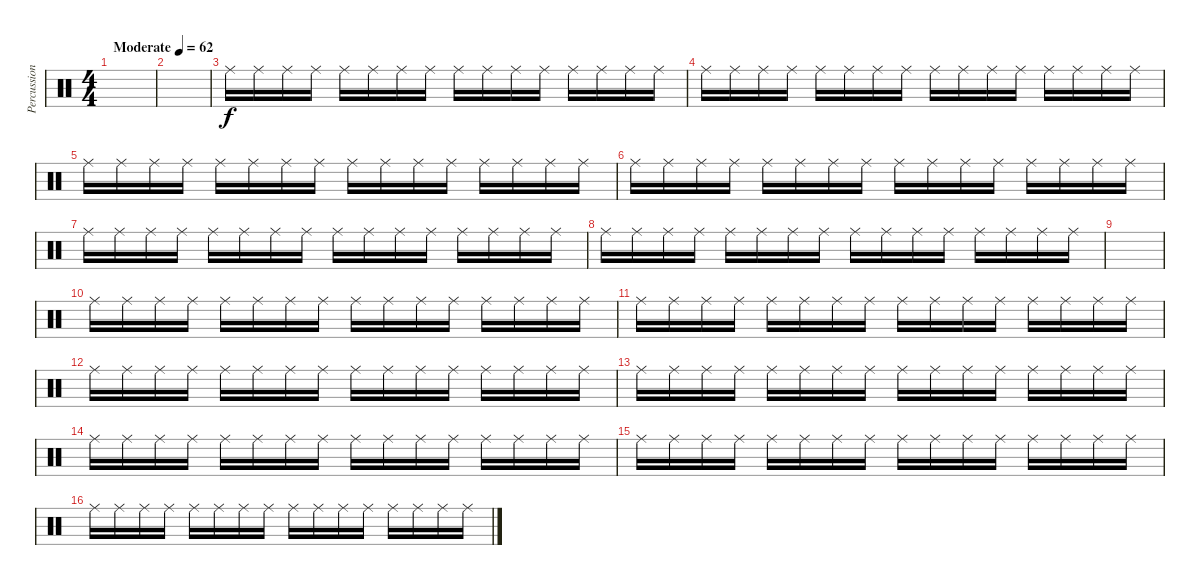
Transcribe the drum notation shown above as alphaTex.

\track ("Percussion" "Percussion") {instrument percussion}
\staff {score}
\articulation defaults
\ts (4 4)
\tempo (62 "Moderate")
\clef neutral
\ks c
|
|
"Ride (middle)".16 "Ride (middle)".16 "Ride (middle)".16 "Ride (middle)".16 "Ride (middle)".16 "Ride (middle)".16 "Ride (middle)".16 "Ride (middle)".16 "Ride (middle)".16 "Ride (middle)".16 "Ride (middle)".16 "Ride (middle)".16 "Ride (middle)".16 "Ride (middle)".16 "Ride (middle)".16 "Ride (middle)".16 |
"Ride (middle)".16 "Ride (middle)".16 "Ride (middle)".16 "Ride (middle)".16 "Ride (middle)".16 "Ride (middle)".16 "Ride (middle)".16 "Ride (middle)".16 "Ride (middle)".16 "Ride (middle)".16 "Ride (middle)".16 "Ride (middle)".16 "Ride (middle)".16 "Ride (middle)".16 "Ride (middle)".16 "Ride (middle)".16 |
"Ride (middle)".16 "Ride (middle)".16 "Ride (middle)".16 "Ride (middle)".16 "Ride (middle)".16 "Ride (middle)".16 "Ride (middle)".16 "Ride (middle)".16 "Ride (middle)".16 "Ride (middle)".16 "Ride (middle)".16 "Ride (middle)".16 "Ride (middle)".16 "Ride (middle)".16 "Ride (middle)".16 "Ride (middle)".16 |
"Ride (middle)".16 "Ride (middle)".16 "Ride (middle)".16 "Ride (middle)".16 "Ride (middle)".16 "Ride (middle)".16 "Ride (middle)".16 "Ride (middle)".16 "Ride (middle)".16 "Ride (middle)".16 "Ride (middle)".16 "Ride (middle)".16 "Ride (middle)".16 "Ride (middle)".16 "Ride (middle)".16 "Ride (middle)".16 |
"Ride (middle)".16 "Ride (middle)".16 "Ride (middle)".16 "Ride (middle)".16 "Ride (middle)".16 "Ride (middle)".16 "Ride (middle)".16 "Ride (middle)".16 "Ride (middle)".16 "Ride (middle)".16 "Ride (middle)".16 "Ride (middle)".16 "Ride (middle)".16 "Ride (middle)".16 "Ride (middle)".16 "Ride (middle)".16 |
"Ride (middle)".16 "Ride (middle)".16 "Ride (middle)".16 "Ride (middle)".16 "Ride (middle)".16 "Ride (middle)".16 "Ride (middle)".16 "Ride (middle)".16 "Ride (middle)".16 "Ride (middle)".16 "Ride (middle)".16 "Ride (middle)".16 "Ride (middle)".16 "Ride (middle)".16 "Ride (middle)".16 "Ride (middle)".16 |
|
"Ride (middle)".16 "Ride (middle)".16 "Ride (middle)".16 "Ride (middle)".16 "Ride (middle)".16 "Ride (middle)".16 "Ride (middle)".16 "Ride (middle)".16 "Ride (middle)".16 "Ride (middle)".16 "Ride (middle)".16 "Ride (middle)".16 "Ride (middle)".16 "Ride (middle)".16 "Ride (middle)".16 "Ride (middle)".16 |
"Ride (middle)".16 "Ride (middle)".16 "Ride (middle)".16 "Ride (middle)".16 "Ride (middle)".16 "Ride (middle)".16 "Ride (middle)".16 "Ride (middle)".16 "Ride (middle)".16 "Ride (middle)".16 "Ride (middle)".16 "Ride (middle)".16 "Ride (middle)".16 "Ride (middle)".16 "Ride (middle)".16 "Ride (middle)".16 |
"Ride (middle)".16 "Ride (middle)".16 "Ride (middle)".16 "Ride (middle)".16 "Ride (middle)".16 "Ride (middle)".16 "Ride (middle)".16 "Ride (middle)".16 "Ride (middle)".16 "Ride (middle)".16 "Ride (middle)".16 "Ride (middle)".16 "Ride (middle)".16 "Ride (middle)".16 "Ride (middle)".16 "Ride (middle)".16 |
"Ride (middle)".16 "Ride (middle)".16 "Ride (middle)".16 "Ride (middle)".16 "Ride (middle)".16 "Ride (middle)".16 "Ride (middle)".16 "Ride (middle)".16 "Ride (middle)".16 "Ride (middle)".16 "Ride (middle)".16 "Ride (middle)".16 "Ride (middle)".16 "Ride (middle)".16 "Ride (middle)".16 "Ride (middle)".16 |
"Ride (middle)".16 "Ride (middle)".16 "Ride (middle)".16 "Ride (middle)".16 "Ride (middle)".16 "Ride (middle)".16 "Ride (middle)".16 "Ride (middle)".16 "Ride (middle)".16 "Ride (middle)".16 "Ride (middle)".16 "Ride (middle)".16 "Ride (middle)".16 "Ride (middle)".16 "Ride (middle)".16 "Ride (middle)".16 |
"Ride (middle)".16 "Ride (middle)".16 "Ride (middle)".16 "Ride (middle)".16 "Ride (middle)".16 "Ride (middle)".16 "Ride (middle)".16 "Ride (middle)".16 "Ride (middle)".16 "Ride (middle)".16 "Ride (middle)".16 "Ride (middle)".16 "Ride (middle)".16 "Ride (middle)".16 "Ride (middle)".16 "Ride (middle)".16 |
"Ride (middle)".16 "Ride (middle)".16 "Ride (middle)".16 "Ride (middle)".16 "Ride (middle)".16 "Ride (middle)".16 "Ride (middle)".16 "Ride (middle)".16 "Ride (middle)".16 "Ride (middle)".16 "Ride (middle)".16 "Ride (middle)".16 "Ride (middle)".16 "Ride (middle)".16 "Ride (middle)".16 "Ride (middle)".16
